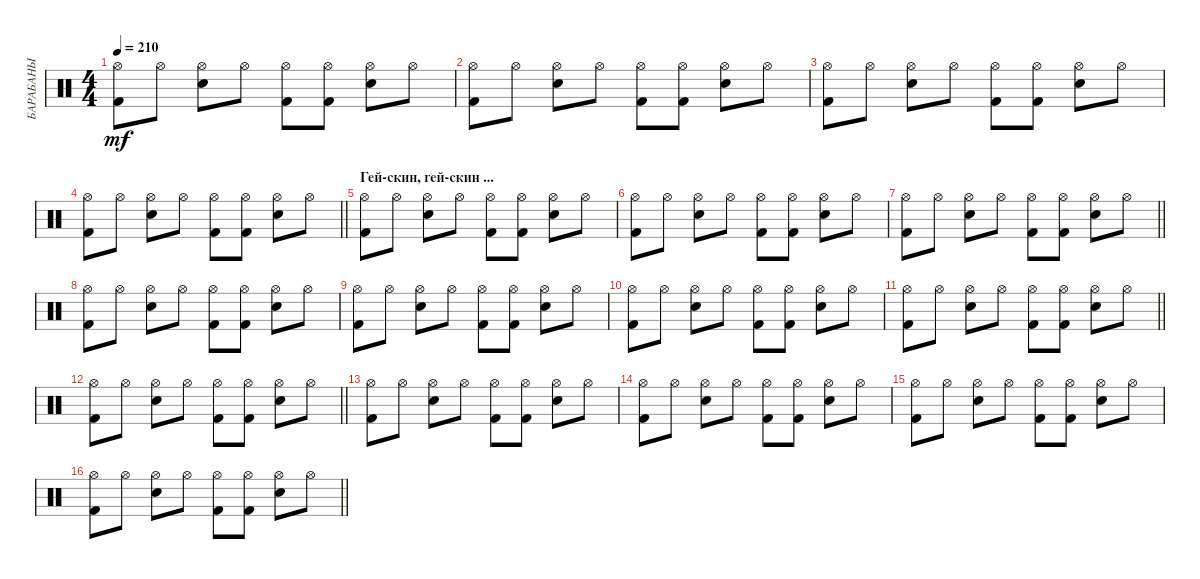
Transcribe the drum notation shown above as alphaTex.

\track ("БАРАБАНЫ" "БАРАБАНЫ") {instrument percussion}
\staff {score}
\articulation defaults
\ts (4 4)
\tempo 210
\clef neutral
\ks c
("Hi-Hat (open)" "Kick (hit) 2").8{dy mf} "Hi-Hat (open)".8 ("Hi-Hat (open)" "Snare (hit) 2").8 "Hi-Hat (open)".8 ("Hi-Hat (open)" "Kick (hit) 2").8 ("Hi-Hat (open)" "Kick (hit) 2").8 ("Hi-Hat (open)" "Snare (hit) 2").8 "Hi-Hat (open)".8 |
("Hi-Hat (open)" "Kick (hit) 2").8 "Hi-Hat (open)".8 ("Hi-Hat (open)" "Snare (hit) 2").8 "Hi-Hat (open)".8 ("Hi-Hat (open)" "Kick (hit) 2").8 ("Hi-Hat (open)" "Kick (hit) 2").8 ("Hi-Hat (open)" "Snare (hit) 2").8 "Hi-Hat (open)".8 |
("Hi-Hat (open)" "Kick (hit) 2").8 "Hi-Hat (open)".8 ("Hi-Hat (open)" "Snare (hit) 2").8 "Hi-Hat (open)".8 ("Hi-Hat (open)" "Kick (hit) 2").8 ("Hi-Hat (open)" "Kick (hit) 2").8 ("Hi-Hat (open)" "Snare (hit) 2").8 "Hi-Hat (open)".8 |
\barLineRight lightlight
("Hi-Hat (open)" "Kick (hit) 2").8 "Hi-Hat (open)".8 ("Hi-Hat (open)" "Snare (hit) 2").8 "Hi-Hat (open)".8 ("Hi-Hat (open)" "Kick (hit) 2").8 ("Hi-Hat (open)" "Kick (hit) 2").8 ("Hi-Hat (open)" "Snare (hit) 2").8 "Hi-Hat (open)".8 |
\section ("" "Гей-скин, гей-скин ...")
("Hi-Hat (open)" "Kick (hit) 2").8 "Hi-Hat (open)".8 ("Hi-Hat (open)" "Snare (hit) 2").8 "Hi-Hat (open)".8 ("Hi-Hat (open)" "Kick (hit) 2").8 ("Hi-Hat (open)" "Kick (hit) 2").8 ("Hi-Hat (open)" "Snare (hit) 2").8 "Hi-Hat (open)".8 |
("Hi-Hat (open)" "Kick (hit) 2").8 "Hi-Hat (open)".8 ("Hi-Hat (open)" "Snare (hit) 2").8 "Hi-Hat (open)".8 ("Hi-Hat (open)" "Kick (hit) 2").8 ("Hi-Hat (open)" "Kick (hit) 2").8 ("Hi-Hat (open)" "Snare (hit) 2").8 "Hi-Hat (open)".8 |
\barLineRight lightlight
("Hi-Hat (open)" "Kick (hit) 2").8 "Hi-Hat (open)".8 ("Hi-Hat (open)" "Snare (hit) 2").8 "Hi-Hat (open)".8 ("Hi-Hat (open)" "Kick (hit) 2").8 ("Hi-Hat (open)" "Kick (hit) 2").8 ("Hi-Hat (open)" "Snare (hit) 2").8 "Hi-Hat (open)".8 |
("Hi-Hat (open)" "Kick (hit) 2").8 "Hi-Hat (open)".8 ("Hi-Hat (open)" "Snare (hit) 2").8 "Hi-Hat (open)".8 ("Hi-Hat (open)" "Kick (hit) 2").8 ("Hi-Hat (open)" "Kick (hit) 2").8 ("Hi-Hat (open)" "Snare (hit) 2").8 "Hi-Hat (open)".8 |
("Hi-Hat (open)" "Kick (hit) 2").8 "Hi-Hat (open)".8 ("Hi-Hat (open)" "Snare (hit) 2").8 "Hi-Hat (open)".8 ("Hi-Hat (open)" "Kick (hit) 2").8 ("Hi-Hat (open)" "Kick (hit) 2").8 ("Hi-Hat (open)" "Snare (hit) 2").8 "Hi-Hat (open)".8 |
("Hi-Hat (open)" "Kick (hit) 2").8 "Hi-Hat (open)".8 ("Hi-Hat (open)" "Snare (hit) 2").8 "Hi-Hat (open)".8 ("Hi-Hat (open)" "Kick (hit) 2").8 ("Hi-Hat (open)" "Kick (hit) 2").8 ("Hi-Hat (open)" "Snare (hit) 2").8 "Hi-Hat (open)".8 |
\barLineRight lightlight
("Hi-Hat (open)" "Kick (hit) 2").8 "Hi-Hat (open)".8 ("Hi-Hat (open)" "Snare (hit) 2").8 "Hi-Hat (open)".8 ("Hi-Hat (open)" "Kick (hit) 2").8 ("Hi-Hat (open)" "Kick (hit) 2").8 ("Hi-Hat (open)" "Snare (hit) 2").8 "Hi-Hat (open)".8 |
\barLineRight lightlight
("Hi-Hat (open)" "Kick (hit) 2").8 "Hi-Hat (open)".8 ("Hi-Hat (open)" "Snare (hit) 2").8 "Hi-Hat (open)".8 ("Hi-Hat (open)" "Kick (hit) 2").8 ("Hi-Hat (open)" "Kick (hit) 2").8 ("Hi-Hat (open)" "Snare (hit) 2").8 "Hi-Hat (open)".8 |
\section ("" "")
("Hi-Hat (open)" "Kick (hit) 2").8 "Hi-Hat (open)".8 ("Hi-Hat (open)" "Snare (hit) 2").8 "Hi-Hat (open)".8 ("Hi-Hat (open)" "Kick (hit) 2").8 ("Hi-Hat (open)" "Kick (hit) 2").8 ("Hi-Hat (open)" "Snare (hit) 2").8 "Hi-Hat (open)".8 |
("Hi-Hat (open)" "Kick (hit) 2").8 "Hi-Hat (open)".8 ("Hi-Hat (open)" "Snare (hit) 2").8 "Hi-Hat (open)".8 ("Hi-Hat (open)" "Kick (hit) 2").8 ("Hi-Hat (open)" "Kick (hit) 2").8 ("Hi-Hat (open)" "Snare (hit) 2").8 "Hi-Hat (open)".8 |
("Hi-Hat (open)" "Kick (hit) 2").8 "Hi-Hat (open)".8 ("Hi-Hat (open)" "Snare (hit) 2").8 "Hi-Hat (open)".8 ("Hi-Hat (open)" "Kick (hit) 2").8 ("Hi-Hat (open)" "Kick (hit) 2").8 ("Hi-Hat (open)" "Snare (hit) 2").8 "Hi-Hat (open)".8 |
\barLineRight lightlight
("Hi-Hat (open)" "Kick (hit) 2").8 "Hi-Hat (open)".8 ("Hi-Hat (open)" "Snare (hit) 2").8 "Hi-Hat (open)".8 ("Hi-Hat (open)" "Kick (hit) 2").8 ("Hi-Hat (open)" "Kick (hit) 2").8 ("Hi-Hat (open)" "Snare (hit) 2").8 "Hi-Hat (open)".8
